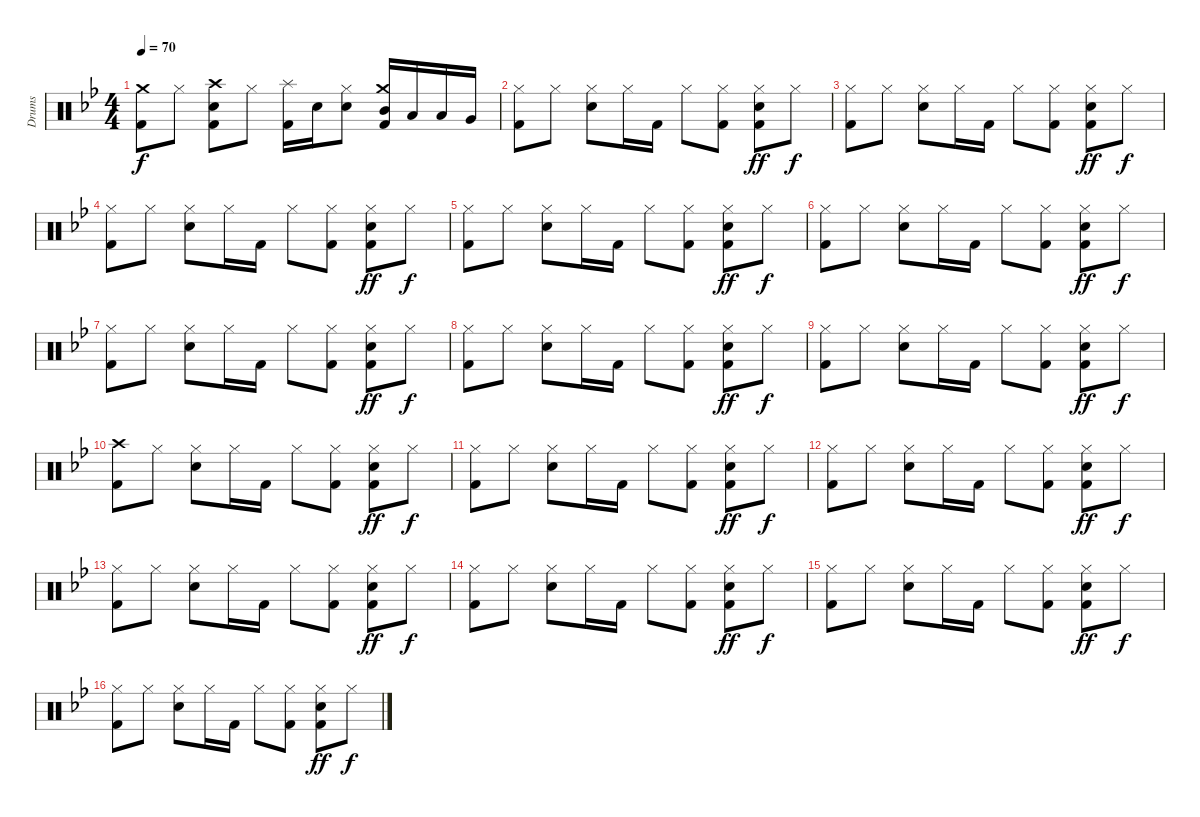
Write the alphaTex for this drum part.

\track ("Drums" "Drums") {instrument percussion}
\staff {score}
\articulation defaults
\ts (4 4)
\tempo 70
\clef neutral
\ks gminor
("Kick (hit) 2" "Crash medium (hit)").8{dy f} "Hi-Hat (closed)".8 ("Crash high (hit)" "Kick (hit) 2" "Electric Snare (hit)").8 "Hi-Hat (closed)".8 ("Splash (hit)" "Kick (hit) 2").16 "Electric Snare (hit)".16 ("Hi-Hat (closed)" "Electric Snare (hit)").8 ("Crash medium (hit)" "Mid Tom (hit)" "Kick (hit) 2").16 "Low Tom (hit)".16 "Low Tom (hit)".16 "Very Low Tom (hit)".16 |
("Kick (hit) 2" "Hi-Hat (closed)").8 "Hi-Hat (closed)".8 ("Electric Snare (hit)" "Hi-Hat (closed)").8 "Hi-Hat (closed)".16 "Kick (hit) 2".16 "Hi-Hat (closed)".8 ("Hi-Hat (closed)" "Kick (hit) 2").8 ("Hi-Hat (closed)" "Electric Snare (hit)" "Kick (hit) 2").8{dy ff} "Hi-Hat (closed)".8{dy f} |
("Kick (hit) 2" "Hi-Hat (closed)").8 "Hi-Hat (closed)".8 ("Electric Snare (hit)" "Hi-Hat (closed)").8 "Hi-Hat (closed)".16 "Kick (hit) 2".16 "Hi-Hat (closed)".8 ("Hi-Hat (closed)" "Kick (hit) 2").8 ("Hi-Hat (closed)" "Electric Snare (hit)" "Kick (hit) 2").8{dy ff} "Hi-Hat (closed)".8{dy f} |
("Kick (hit) 2" "Hi-Hat (closed)").8 "Hi-Hat (closed)".8 ("Electric Snare (hit)" "Hi-Hat (closed)").8 "Hi-Hat (closed)".16 "Kick (hit) 2".16 "Hi-Hat (closed)".8 ("Hi-Hat (closed)" "Kick (hit) 2").8 ("Hi-Hat (closed)" "Electric Snare (hit)" "Kick (hit) 2").8{dy ff} "Hi-Hat (closed)".8{dy f} |
("Kick (hit) 2" "Hi-Hat (closed)").8 "Hi-Hat (closed)".8 ("Electric Snare (hit)" "Hi-Hat (closed)").8 "Hi-Hat (closed)".16 "Kick (hit) 2".16 "Hi-Hat (closed)".8 ("Hi-Hat (closed)" "Kick (hit) 2").8 ("Hi-Hat (closed)" "Electric Snare (hit)" "Kick (hit) 2").8{dy ff} "Hi-Hat (closed)".8{dy f} |
("Kick (hit) 2" "Hi-Hat (closed)").8 "Hi-Hat (closed)".8 ("Electric Snare (hit)" "Hi-Hat (closed)").8 "Hi-Hat (closed)".16 "Kick (hit) 2".16 "Hi-Hat (closed)".8 ("Hi-Hat (closed)" "Kick (hit) 2").8 ("Hi-Hat (closed)" "Electric Snare (hit)" "Kick (hit) 2").8{dy ff} "Hi-Hat (closed)".8{dy f} |
("Kick (hit) 2" "Hi-Hat (closed)").8 "Hi-Hat (closed)".8 ("Electric Snare (hit)" "Hi-Hat (closed)").8 "Hi-Hat (closed)".16 "Kick (hit) 2".16 "Hi-Hat (closed)".8 ("Hi-Hat (closed)" "Kick (hit) 2").8 ("Hi-Hat (closed)" "Electric Snare (hit)" "Kick (hit) 2").8{dy ff} "Hi-Hat (closed)".8{dy f} |
("Kick (hit) 2" "Hi-Hat (closed)").8 "Hi-Hat (closed)".8 ("Electric Snare (hit)" "Hi-Hat (closed)").8 "Hi-Hat (closed)".16 "Kick (hit) 2".16 "Hi-Hat (closed)".8 ("Hi-Hat (closed)" "Kick (hit) 2").8 ("Hi-Hat (closed)" "Electric Snare (hit)" "Kick (hit) 2").8{dy ff} "Hi-Hat (closed)".8{dy f} |
("Kick (hit) 2" "Hi-Hat (closed)").8 "Hi-Hat (closed)".8 ("Electric Snare (hit)" "Hi-Hat (closed)").8 "Hi-Hat (closed)".16 "Kick (hit) 2".16 "Hi-Hat (closed)".8 ("Hi-Hat (closed)" "Kick (hit) 2").8 ("Hi-Hat (closed)" "Electric Snare (hit)" "Kick (hit) 2").8{dy ff} "Hi-Hat (closed)".8{dy f} |
("Kick (hit) 2" "Crash high (hit)").8 "Hi-Hat (closed)".8 ("Electric Snare (hit)" "Hi-Hat (closed)").8 "Hi-Hat (closed)".16 "Kick (hit) 2".16 "Hi-Hat (closed)".8 ("Hi-Hat (closed)" "Kick (hit) 2").8 ("Hi-Hat (closed)" "Electric Snare (hit)" "Kick (hit) 2").8{dy ff} "Hi-Hat (closed)".8{dy f} |
("Kick (hit) 2" "Hi-Hat (closed)").8 "Hi-Hat (closed)".8 ("Electric Snare (hit)" "Hi-Hat (closed)").8 "Hi-Hat (closed)".16 "Kick (hit) 2".16 "Hi-Hat (closed)".8 ("Hi-Hat (closed)" "Kick (hit) 2").8 ("Hi-Hat (closed)" "Electric Snare (hit)" "Kick (hit) 2").8{dy ff} "Hi-Hat (closed)".8{dy f} |
("Kick (hit) 2" "Hi-Hat (closed)").8 "Hi-Hat (closed)".8 ("Electric Snare (hit)" "Hi-Hat (closed)").8 "Hi-Hat (closed)".16 "Kick (hit) 2".16 "Hi-Hat (closed)".8 ("Hi-Hat (closed)" "Kick (hit) 2").8 ("Hi-Hat (closed)" "Electric Snare (hit)" "Kick (hit) 2").8{dy ff} "Hi-Hat (closed)".8{dy f} |
("Kick (hit) 2" "Hi-Hat (closed)").8 "Hi-Hat (closed)".8 ("Electric Snare (hit)" "Hi-Hat (closed)").8 "Hi-Hat (closed)".16 "Kick (hit) 2".16 "Hi-Hat (closed)".8 ("Hi-Hat (closed)" "Kick (hit) 2").8 ("Hi-Hat (closed)" "Electric Snare (hit)" "Kick (hit) 2").8{dy ff} "Hi-Hat (closed)".8{dy f} |
("Kick (hit) 2" "Hi-Hat (closed)").8 "Hi-Hat (closed)".8 ("Electric Snare (hit)" "Hi-Hat (closed)").8 "Hi-Hat (closed)".16 "Kick (hit) 2".16 "Hi-Hat (closed)".8 ("Hi-Hat (closed)" "Kick (hit) 2").8 ("Hi-Hat (closed)" "Electric Snare (hit)" "Kick (hit) 2").8{dy ff} "Hi-Hat (closed)".8{dy f} |
("Kick (hit) 2" "Hi-Hat (closed)").8 "Hi-Hat (closed)".8 ("Electric Snare (hit)" "Hi-Hat (closed)").8 "Hi-Hat (closed)".16 "Kick (hit) 2".16 "Hi-Hat (closed)".8 ("Hi-Hat (closed)" "Kick (hit) 2").8 ("Hi-Hat (closed)" "Electric Snare (hit)" "Kick (hit) 2").8{dy ff} "Hi-Hat (closed)".8{dy f} |
("Kick (hit) 2" "Hi-Hat (closed)").8 "Hi-Hat (closed)".8 ("Electric Snare (hit)" "Hi-Hat (closed)").8 "Hi-Hat (closed)".16 "Kick (hit) 2".16 "Hi-Hat (closed)".8 ("Hi-Hat (closed)" "Kick (hit) 2").8 ("Hi-Hat (closed)" "Electric Snare (hit)" "Kick (hit) 2").8{dy ff} "Hi-Hat (closed)".8{dy f}
